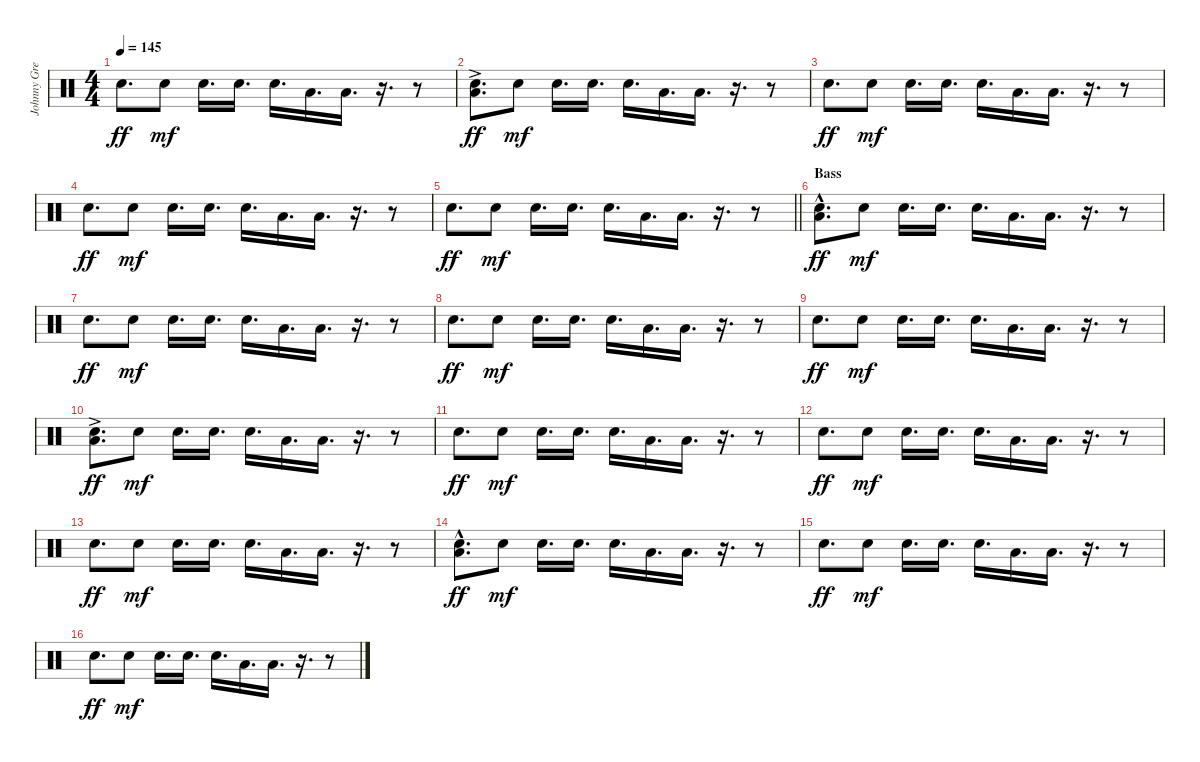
\track ("Johnny Greenwood" "Johnny Gre") {instrument percussion}
\staff {score}
\articulation defaults
\ts (4 4)
\tempo 145
\clef neutral
\ks c "Snare (hit) 2".8{d dy ff} "Snare (hit) 2".8{dy mf} "Snare (hit) 2".16{d} "Snare (hit) 2".16{d} "Snare (hit) 2".16{d} "Low Floor Tom (hit)".16{d} "Low Floor Tom (hit)".16{d}
r.16{d} r.8 |
("Snare (hit) 2" "Low Floor Tom (hit)"{ac}).8{d dy ff} "Snare (hit) 2".8{dy mf} "Snare (hit) 2".16{d} "Snare (hit) 2".16{d} "Snare (hit) 2".16{d} "Low Floor Tom (hit)".16{d} "Low Floor Tom (hit)".16{d} r.16{d} r.8 |
"Snare (hit) 2".8{d dy ff} "Snare (hit) 2".8{dy mf} "Snare (hit) 2".16{d} "Snare (hit) 2".16{d} "Snare (hit) 2".16{d} "Low Floor Tom (hit)".16{d} "Low Floor Tom (hit)".16{d} r.16{d} r.8 |
"Snare (hit) 2".8{d dy ff} "Snare (hit) 2".8{dy mf} "Snare (hit) 2".16{d} "Snare (hit) 2".16{d} "Snare (hit) 2".16{d} "Low Floor Tom (hit)".16{d} "Low Floor Tom (hit)".16{d} r.16{d} r.8 |
\barLineRight lightlight "Snare (hit) 2".8{d dy ff} "Snare (hit) 2".8{dy mf} "Snare (hit) 2".16{d} "Snare (hit) 2".16{d} "Snare (hit) 2".16{d} "Low Floor Tom (hit)".16{d} "Low Floor Tom (hit)".16{d}
r.16{d} r.8 |
\section ("" "Bass")
("Snare (hit) 2" "Low Floor Tom (hit)"{hac}).8{d dy ff} "Snare (hit) 2".8{dy mf} "Snare (hit) 2".16{d} "Snare (hit) 2".16{d} "Snare (hit) 2".16{d} "Low Floor Tom (hit)".16{d} "Low Floor Tom (hit)".16{d} r.16{d} r.8 |
"Snare (hit) 2".8{d dy ff} "Snare (hit) 2".8{dy mf} "Snare (hit) 2".16{d} "Snare (hit) 2".16{d} "Snare (hit) 2".16{d} "Low Floor Tom (hit)".16{d} "Low Floor Tom (hit)".16{d} r.16{d} r.8 |
"Snare (hit) 2".8{d dy ff} "Snare (hit) 2".8{dy mf} "Snare (hit) 2".16{d} "Snare (hit) 2".16{d} "Snare (hit) 2".16{d} "Low Floor Tom (hit)".16{d} "Low Floor Tom (hit)".16{d} r.16{d} r.8 |
"Snare (hit) 2".8{d dy ff} "Snare (hit) 2".8{dy mf} "Snare (hit) 2".16{d} "Snare (hit) 2".16{d} "Snare (hit) 2".16{d} "Low Floor Tom (hit)".16{d} "Low Floor Tom (hit)".16{d} r.16{d} r.8 |
("Snare (hit) 2" "Low Floor Tom (hit)"{ac}).8{d dy ff} "Snare (hit) 2".8{dy mf} "Snare (hit) 2".16{d} "Snare (hit) 2".16{d} "Snare (hit) 2".16{d} "Low Floor Tom (hit)".16{d} "Low Floor Tom (hit)".16{d} r.16{d} r.8 |
"Snare (hit) 2".8{d dy ff} "Snare (hit) 2".8{dy mf} "Snare (hit) 2".16{d} "Snare (hit) 2".16{d} "Snare (hit) 2".16{d} "Low Floor Tom (hit)".16{d} "Low Floor Tom (hit)".16{d} r.16{d} r.8 |
"Snare (hit) 2".8{d dy ff} "Snare (hit) 2".8{dy mf} "Snare (hit) 2".16{d} "Snare (hit) 2".16{d} "Snare (hit) 2".16{d} "Low Floor Tom (hit)".16{d} "Low Floor Tom (hit)".16{d} r.16{d} r.8 |
"Snare (hit) 2".8{d dy ff} "Snare (hit) 2".8{dy mf} "Snare (hit) 2".16{d} "Snare (hit) 2".16{d} "Snare (hit) 2".16{d} "Low Floor Tom (hit)".16{d} "Low Floor Tom (hit)".16{d} r.16{d} r.8 |
("Snare (hit) 2" "Low Floor Tom (hit)"{hac}).8{d dy ff} "Snare (hit) 2".8{dy mf} "Snare (hit) 2".16{d} "Snare (hit) 2".16{d} "Snare (hit) 2".16{d} "Low Floor Tom (hit)".16{d} "Low Floor Tom (hit)".16{d} r.16{d} r.8 |
"Snare (hit) 2".8{d dy ff} "Snare (hit) 2".8{dy mf} "Snare (hit) 2".16{d} "Snare (hit) 2".16{d} "Snare (hit) 2".16{d} "Low Floor Tom (hit)".16{d} "Low Floor Tom (hit)".16{d} r.16{d} r.8 |
"Snare (hit) 2".8{d dy ff} "Snare (hit) 2".8{dy mf} "Snare (hit) 2".16{d} "Snare (hit) 2".16{d} "Snare (hit) 2".16{d} "Low Floor Tom (hit)".16{d} "Low Floor Tom (hit)".16{d} r.16{d} r.8
